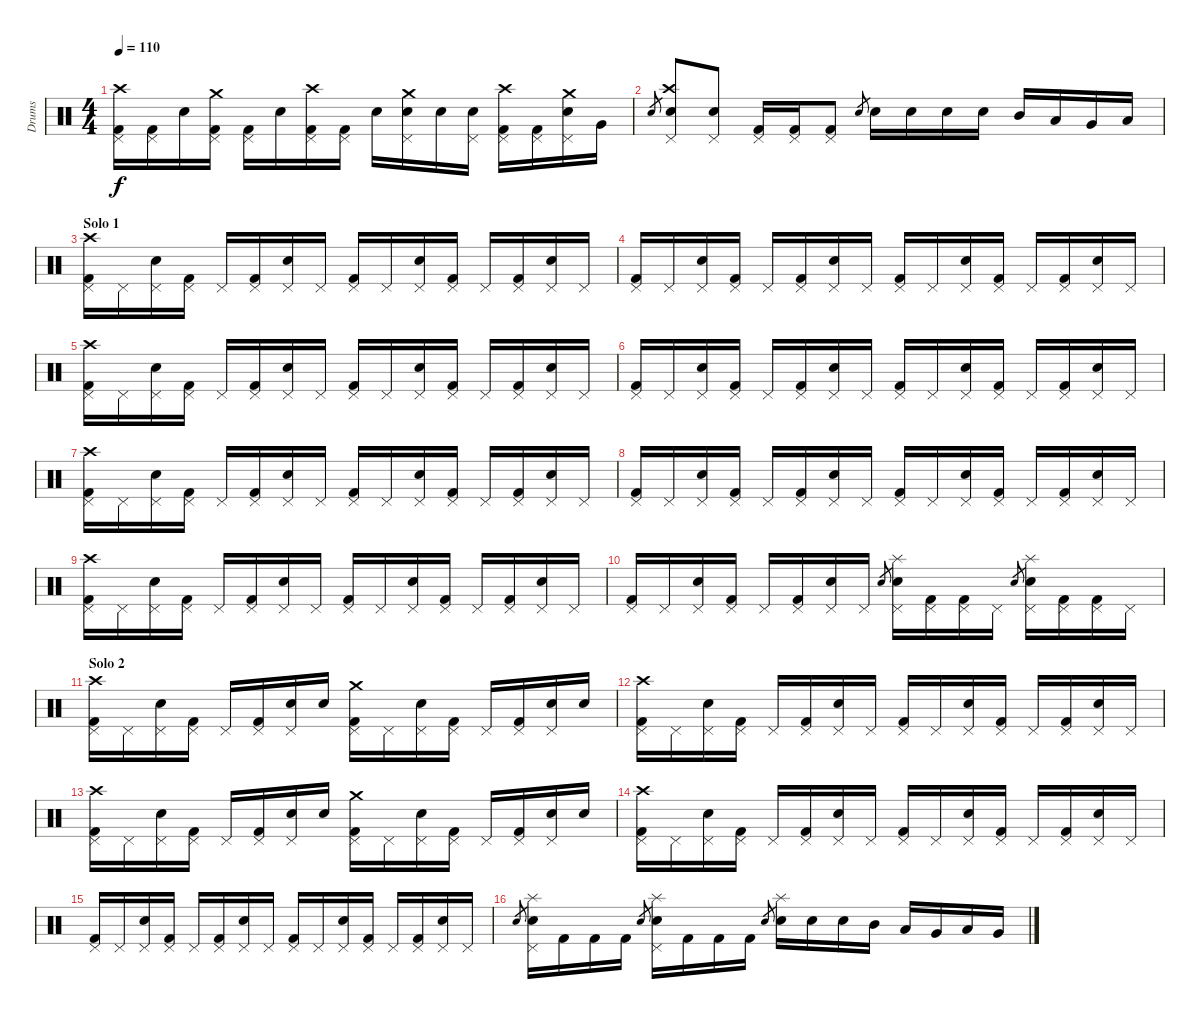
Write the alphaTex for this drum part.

\track ("Drums" "Drums") {instrument percussion}
\staff {score}
\articulation defaults
\ts (4 4)
\tempo 110
\clef neutral
\ks c
("Kick (hit) 2" "Pedal Hi-Hat (hit)" "Crash high (hit)").16{dy f} ("Kick (hit) 2" "Pedal Hi-Hat (hit)").16 "Snare (hit) 2".16 ("Kick (hit) 2" "Pedal Hi-Hat (hit)" "Crash medium (hit)").16 ("Kick (hit) 2" "Pedal Hi-Hat (hit)").16 "Snare (hit) 2".16 ("Kick (hit) 2" "Pedal Hi-Hat (hit)" "Crash high (hit)").16 ("Kick (hit) 2" "Pedal Hi-Hat (hit)").16 "Snare (hit) 2".16 ("Snare (hit) 2" "Pedal Hi-Hat (hit)" "Crash medium (hit)").16 "Snare (hit) 2".16 ("Snare (hit) 2" "Pedal Hi-Hat (hit)").16 ("Kick (hit) 2" "Pedal Hi-Hat (hit)" "Crash high (hit)").16 ("Kick (hit) 2" "Pedal Hi-Hat (hit)").16 ("Snare (hit) 2" "Pedal Hi-Hat (hit)" "Crash medium (hit)").16 "Very Low Tom (hit)".16 |
"Snare (hit) 2".8{gr} ("Snare (hit) 2" "Pedal Hi-Hat (hit)" "Crash high (hit)").8 ("Snare (hit) 2" "Pedal Hi-Hat (hit)").8 ("Kick (hit) 2" "Pedal Hi-Hat (hit)").16 ("Kick (hit) 2" "Pedal Hi-Hat (hit)").16 ("Kick (hit) 2" "Pedal Hi-Hat (hit)").8 "Snare (hit) 2".8{gr} "Snare (hit) 2".16 "Snare (hit) 2".16 "Snare (hit) 2".16 "Snare (hit) 2".16 "Mid Tom (hit)".16 "Low Tom (hit)".16 "Very Low Tom (hit)".16 "Low Floor Tom (hit)".16 |
\section ("" "Solo 1")
("Kick (hit) 2" "Pedal Hi-Hat (hit)" "Crash high (hit)").16 "Pedal Hi-Hat (hit)".16 ("Snare (hit) 2" "Pedal Hi-Hat (hit)").16 ("Kick (hit) 2" "Pedal Hi-Hat (hit)").16 "Pedal Hi-Hat (hit)".16 ("Kick (hit) 2" "Pedal Hi-Hat (hit)").16 ("Snare (hit) 2" "Pedal Hi-Hat (hit)").16 "Pedal Hi-Hat (hit)".16 ("Kick (hit) 2" "Pedal Hi-Hat (hit)").16 "Pedal Hi-Hat (hit)".16 ("Snare (hit) 2" "Pedal Hi-Hat (hit)").16 ("Kick (hit) 2" "Pedal Hi-Hat (hit)").16 "Pedal Hi-Hat (hit)".16 ("Kick (hit) 2" "Pedal Hi-Hat (hit)").16 ("Snare (hit) 2" "Pedal Hi-Hat (hit)").16 "Pedal Hi-Hat (hit)".16 |
("Kick (hit) 2" "Pedal Hi-Hat (hit)").16 "Pedal Hi-Hat (hit)".16 ("Snare (hit) 2" "Pedal Hi-Hat (hit)").16 ("Kick (hit) 2" "Pedal Hi-Hat (hit)").16 "Pedal Hi-Hat (hit)".16 ("Kick (hit) 2" "Pedal Hi-Hat (hit)").16 ("Snare (hit) 2" "Pedal Hi-Hat (hit)").16 "Pedal Hi-Hat (hit)".16 ("Kick (hit) 2" "Pedal Hi-Hat (hit)").16 "Pedal Hi-Hat (hit)".16 ("Snare (hit) 2" "Pedal Hi-Hat (hit)").16 ("Kick (hit) 2" "Pedal Hi-Hat (hit)").16 "Pedal Hi-Hat (hit)".16 ("Kick (hit) 2" "Pedal Hi-Hat (hit)").16 ("Snare (hit) 2" "Pedal Hi-Hat (hit)").16 "Pedal Hi-Hat (hit)".16 |
("Kick (hit) 2" "Pedal Hi-Hat (hit)" "Crash high (hit)").16 "Pedal Hi-Hat (hit)".16 ("Snare (hit) 2" "Pedal Hi-Hat (hit)").16 ("Kick (hit) 2" "Pedal Hi-Hat (hit)").16 "Pedal Hi-Hat (hit)".16 ("Kick (hit) 2" "Pedal Hi-Hat (hit)").16 ("Snare (hit) 2" "Pedal Hi-Hat (hit)").16 "Pedal Hi-Hat (hit)".16 ("Kick (hit) 2" "Pedal Hi-Hat (hit)").16 "Pedal Hi-Hat (hit)".16 ("Snare (hit) 2" "Pedal Hi-Hat (hit)").16 ("Kick (hit) 2" "Pedal Hi-Hat (hit)").16 "Pedal Hi-Hat (hit)".16 ("Kick (hit) 2" "Pedal Hi-Hat (hit)").16 ("Snare (hit) 2" "Pedal Hi-Hat (hit)").16 "Pedal Hi-Hat (hit)".16 |
("Kick (hit) 2" "Pedal Hi-Hat (hit)").16 "Pedal Hi-Hat (hit)".16 ("Snare (hit) 2" "Pedal Hi-Hat (hit)").16 ("Kick (hit) 2" "Pedal Hi-Hat (hit)").16 "Pedal Hi-Hat (hit)".16 ("Kick (hit) 2" "Pedal Hi-Hat (hit)").16 ("Snare (hit) 2" "Pedal Hi-Hat (hit)").16 "Pedal Hi-Hat (hit)".16 ("Kick (hit) 2" "Pedal Hi-Hat (hit)").16 "Pedal Hi-Hat (hit)".16 ("Snare (hit) 2" "Pedal Hi-Hat (hit)").16 ("Kick (hit) 2" "Pedal Hi-Hat (hit)").16 "Pedal Hi-Hat (hit)".16 ("Kick (hit) 2" "Pedal Hi-Hat (hit)").16 ("Snare (hit) 2" "Pedal Hi-Hat (hit)").16 "Pedal Hi-Hat (hit)".16 |
("Kick (hit) 2" "Pedal Hi-Hat (hit)" "Crash high (hit)").16 "Pedal Hi-Hat (hit)".16 ("Snare (hit) 2" "Pedal Hi-Hat (hit)").16 ("Kick (hit) 2" "Pedal Hi-Hat (hit)").16 "Pedal Hi-Hat (hit)".16 ("Kick (hit) 2" "Pedal Hi-Hat (hit)").16 ("Snare (hit) 2" "Pedal Hi-Hat (hit)").16 "Pedal Hi-Hat (hit)".16 ("Kick (hit) 2" "Pedal Hi-Hat (hit)").16 "Pedal Hi-Hat (hit)".16 ("Snare (hit) 2" "Pedal Hi-Hat (hit)").16 ("Kick (hit) 2" "Pedal Hi-Hat (hit)").16 "Pedal Hi-Hat (hit)".16 ("Kick (hit) 2" "Pedal Hi-Hat (hit)").16 ("Snare (hit) 2" "Pedal Hi-Hat (hit)").16 "Pedal Hi-Hat (hit)".16 |
("Kick (hit) 2" "Pedal Hi-Hat (hit)").16 "Pedal Hi-Hat (hit)".16 ("Snare (hit) 2" "Pedal Hi-Hat (hit)").16 ("Kick (hit) 2" "Pedal Hi-Hat (hit)").16 "Pedal Hi-Hat (hit)".16 ("Kick (hit) 2" "Pedal Hi-Hat (hit)").16 ("Snare (hit) 2" "Pedal Hi-Hat (hit)").16 "Pedal Hi-Hat (hit)".16 ("Kick (hit) 2" "Pedal Hi-Hat (hit)").16 "Pedal Hi-Hat (hit)".16 ("Snare (hit) 2" "Pedal Hi-Hat (hit)").16 ("Kick (hit) 2" "Pedal Hi-Hat (hit)").16 "Pedal Hi-Hat (hit)".16 ("Kick (hit) 2" "Pedal Hi-Hat (hit)").16 ("Snare (hit) 2" "Pedal Hi-Hat (hit)").16 "Pedal Hi-Hat (hit)".16 |
("Kick (hit) 2" "Pedal Hi-Hat (hit)" "Crash high (hit)").16 "Pedal Hi-Hat (hit)".16 ("Snare (hit) 2" "Pedal Hi-Hat (hit)").16 ("Kick (hit) 2" "Pedal Hi-Hat (hit)").16 "Pedal Hi-Hat (hit)".16 ("Kick (hit) 2" "Pedal Hi-Hat (hit)").16 ("Snare (hit) 2" "Pedal Hi-Hat (hit)").16 "Pedal Hi-Hat (hit)".16 ("Kick (hit) 2" "Pedal Hi-Hat (hit)").16 "Pedal Hi-Hat (hit)".16 ("Snare (hit) 2" "Pedal Hi-Hat (hit)").16 ("Kick (hit) 2" "Pedal Hi-Hat (hit)").16 "Pedal Hi-Hat (hit)".16 ("Kick (hit) 2" "Pedal Hi-Hat (hit)").16 ("Snare (hit) 2" "Pedal Hi-Hat (hit)").16 "Pedal Hi-Hat (hit)".16 |
("Kick (hit) 2" "Pedal Hi-Hat (hit)").16 "Pedal Hi-Hat (hit)".16 ("Snare (hit) 2" "Pedal Hi-Hat (hit)").16 ("Kick (hit) 2" "Pedal Hi-Hat (hit)").16 "Pedal Hi-Hat (hit)".16 ("Kick (hit) 2" "Pedal Hi-Hat (hit)").16 ("Snare (hit) 2" "Pedal Hi-Hat (hit)").16 "Pedal Hi-Hat (hit)".16 "Snare (hit) 2".8{gr} ("Snare (hit) 2" "Pedal Hi-Hat (hit)" "Splash (hit)").16 ("Kick (hit) 2" "Pedal Hi-Hat (hit)").16 ("Kick (hit) 2" "Pedal Hi-Hat (hit)").16 "Pedal Hi-Hat (hit)".16 "Snare (hit) 2".8{gr} ("Snare (hit) 2" "Pedal Hi-Hat (hit)" "Splash (hit)").16 ("Kick (hit) 2" "Pedal Hi-Hat (hit)").16 ("Kick (hit) 2" "Pedal Hi-Hat (hit)").16 "Pedal Hi-Hat (hit)".16 |
\section ("" "Solo 2")
("Kick (hit) 2" "Pedal Hi-Hat (hit)" "Crash high (hit)").16 "Pedal Hi-Hat (hit)".16 ("Snare (hit) 2" "Pedal Hi-Hat (hit)").16 ("Kick (hit) 2" "Pedal Hi-Hat (hit)").16 "Pedal Hi-Hat (hit)".16 ("Kick (hit) 2" "Pedal Hi-Hat (hit)").16 ("Snare (hit) 2" "Pedal Hi-Hat (hit)").16 "Snare (hit) 2".16 ("Kick (hit) 2" "Pedal Hi-Hat (hit)" "Crash medium (hit)").16 "Pedal Hi-Hat (hit)".16 ("Snare (hit) 2" "Pedal Hi-Hat (hit)").16 ("Kick (hit) 2" "Pedal Hi-Hat (hit)").16 "Pedal Hi-Hat (hit)".16 ("Kick (hit) 2" "Pedal Hi-Hat (hit)").16 ("Snare (hit) 2" "Pedal Hi-Hat (hit)").16 "Snare (hit) 2".16 |
("Kick (hit) 2" "Pedal Hi-Hat (hit)" "Crash high (hit)").16 "Pedal Hi-Hat (hit)".16 ("Snare (hit) 2" "Pedal Hi-Hat (hit)").16 ("Kick (hit) 2" "Pedal Hi-Hat (hit)").16 "Pedal Hi-Hat (hit)".16 ("Kick (hit) 2" "Pedal Hi-Hat (hit)").16 ("Snare (hit) 2" "Pedal Hi-Hat (hit)").16 "Pedal Hi-Hat (hit)".16 ("Kick (hit) 2" "Pedal Hi-Hat (hit)").16 "Pedal Hi-Hat (hit)".16 ("Snare (hit) 2" "Pedal Hi-Hat (hit)").16 ("Kick (hit) 2" "Pedal Hi-Hat (hit)").16 "Pedal Hi-Hat (hit)".16 ("Kick (hit) 2" "Pedal Hi-Hat (hit)").16 ("Snare (hit) 2" "Pedal Hi-Hat (hit)").16 "Pedal Hi-Hat (hit)".16 |
("Kick (hit) 2" "Pedal Hi-Hat (hit)" "Crash high (hit)").16 "Pedal Hi-Hat (hit)".16 ("Snare (hit) 2" "Pedal Hi-Hat (hit)").16 ("Kick (hit) 2" "Pedal Hi-Hat (hit)").16 "Pedal Hi-Hat (hit)".16 ("Kick (hit) 2" "Pedal Hi-Hat (hit)").16 ("Snare (hit) 2" "Pedal Hi-Hat (hit)").16 "Snare (hit) 2".16 ("Kick (hit) 2" "Pedal Hi-Hat (hit)" "Crash medium (hit)").16 "Pedal Hi-Hat (hit)".16 ("Snare (hit) 2" "Pedal Hi-Hat (hit)").16 ("Kick (hit) 2" "Pedal Hi-Hat (hit)").16 "Pedal Hi-Hat (hit)".16 ("Kick (hit) 2" "Pedal Hi-Hat (hit)").16 ("Snare (hit) 2" "Pedal Hi-Hat (hit)").16 "Snare (hit) 2".16 |
("Kick (hit) 2" "Pedal Hi-Hat (hit)" "Crash high (hit)").16 "Pedal Hi-Hat (hit)".16 ("Snare (hit) 2" "Pedal Hi-Hat (hit)").16 ("Kick (hit) 2" "Pedal Hi-Hat (hit)").16 "Pedal Hi-Hat (hit)".16 ("Kick (hit) 2" "Pedal Hi-Hat (hit)").16 ("Snare (hit) 2" "Pedal Hi-Hat (hit)").16 "Pedal Hi-Hat (hit)".16 ("Kick (hit) 2" "Pedal Hi-Hat (hit)").16 "Pedal Hi-Hat (hit)".16 ("Snare (hit) 2" "Pedal Hi-Hat (hit)").16 ("Kick (hit) 2" "Pedal Hi-Hat (hit)").16 "Pedal Hi-Hat (hit)".16 ("Kick (hit) 2" "Pedal Hi-Hat (hit)").16 ("Snare (hit) 2" "Pedal Hi-Hat (hit)").16 "Pedal Hi-Hat (hit)".16 |
("Kick (hit) 2" "Pedal Hi-Hat (hit)").16 "Pedal Hi-Hat (hit)".16 ("Snare (hit) 2" "Pedal Hi-Hat (hit)").16 ("Kick (hit) 2" "Pedal Hi-Hat (hit)").16 "Pedal Hi-Hat (hit)".16 ("Kick (hit) 2" "Pedal Hi-Hat (hit)").16 ("Snare (hit) 2" "Pedal Hi-Hat (hit)").16 "Pedal Hi-Hat (hit)".16 ("Kick (hit) 2" "Pedal Hi-Hat (hit)").16 "Pedal Hi-Hat (hit)".16 ("Snare (hit) 2" "Pedal Hi-Hat (hit)").16 ("Kick (hit) 2" "Pedal Hi-Hat (hit)").16 "Pedal Hi-Hat (hit)".16 ("Kick (hit) 2" "Pedal Hi-Hat (hit)").16 ("Snare (hit) 2" "Pedal Hi-Hat (hit)").16 "Pedal Hi-Hat (hit)".16 |
"Snare (hit) 2".8{gr} ("Snare (hit) 2" "Pedal Hi-Hat (hit)" "Splash (hit)").16 "Kick (hit) 2".16 "Kick (hit) 2".16 "Kick (hit) 2".16 "Snare (hit) 2".8{gr} ("Snare (hit) 2" "Pedal Hi-Hat (hit)" "Splash (hit)").16 "Kick (hit) 2".16 "Kick (hit) 2".16 "Kick (hit) 2".16 "Snare (hit) 2".8{gr} ("Snare (hit) 2" "Splash (hit)").16 "Snare (hit) 2".16 "Snare (hit) 2".16 "Mid Tom (hit)".16 "Low Tom (hit)".16 "Very Low Tom (hit)".16 "Low Floor Tom (hit)".16 "Very Low Tom (hit)".16
